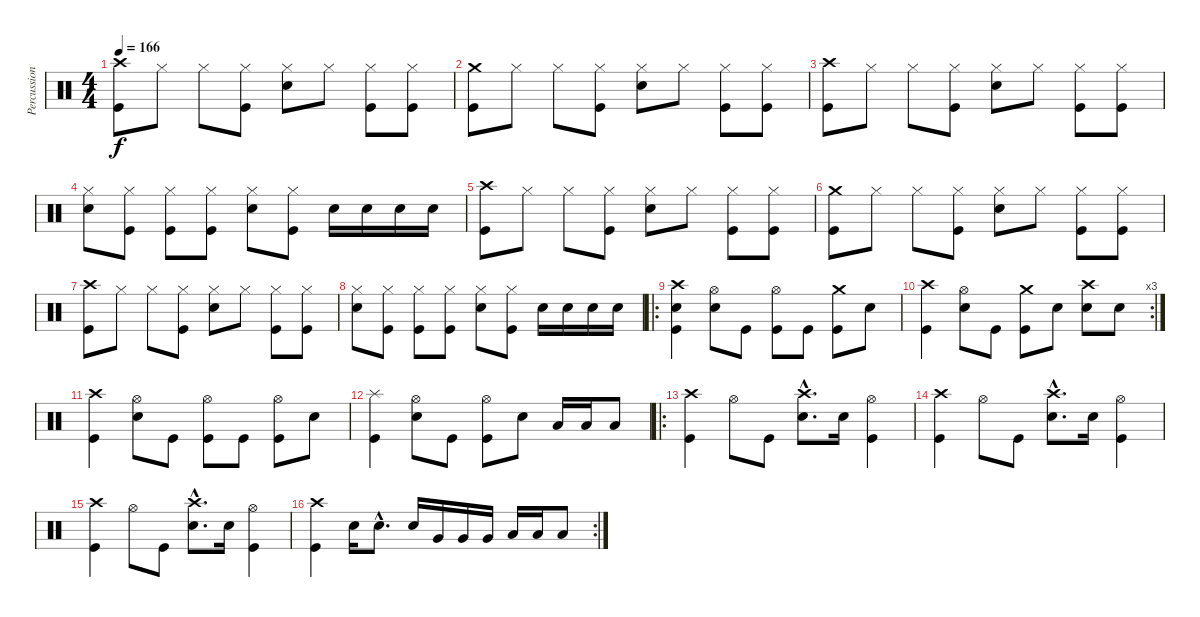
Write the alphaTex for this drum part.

\track ("Percussions" "Percussion") {instrument percussion}
\staff {score}
\articulation defaults
\ts (4 4)
\tempo 166
\clef neutral
\ks c
("Crash high (hit)" "Kick (hit)").8{dy f} "Hi-Hat (closed)".8 "Hi-Hat (closed)".8 ("Hi-Hat (closed)" "Kick (hit)").8 ("Hi-Hat (closed)" "Snare (hit) 2").8 "Hi-Hat (closed)".8 ("Hi-Hat (closed)" "Kick (hit)").8 ("Hi-Hat (closed)" "Kick (hit)").8 |
("Crash medium (hit)" "Kick (hit)").8 "Hi-Hat (closed)".8 "Hi-Hat (closed)".8 ("Hi-Hat (closed)" "Kick (hit)").8 ("Hi-Hat (closed)" "Snare (hit) 2").8 "Hi-Hat (closed)".8 ("Hi-Hat (closed)" "Kick (hit)").8 ("Hi-Hat (closed)" "Kick (hit)").8 |
("Crash high (hit)" "Kick (hit)").8 "Hi-Hat (closed)".8 "Hi-Hat (closed)".8 ("Hi-Hat (closed)" "Kick (hit)").8 ("Hi-Hat (closed)" "Snare (hit) 2").8 "Hi-Hat (closed)".8 ("Hi-Hat (closed)" "Kick (hit)").8 ("Hi-Hat (closed)" "Kick (hit)").8 |
("Hi-Hat (closed)" "Snare (hit) 2").8 ("Hi-Hat (closed)" "Kick (hit)").8 ("Hi-Hat (closed)" "Kick (hit)").8 ("Hi-Hat (closed)" "Kick (hit)").8 ("Hi-Hat (closed)" "Snare (hit) 2").8 ("Hi-Hat (closed)" "Kick (hit)").8 "Snare (hit) 2".16 "Snare (hit) 2".16 "Snare (hit) 2".16 "Snare (hit) 2".16 |
("Crash high (hit)" "Kick (hit)").8 "Hi-Hat (closed)".8 "Hi-Hat (closed)".8 ("Hi-Hat (closed)" "Kick (hit)").8 ("Hi-Hat (closed)" "Snare (hit) 2").8 "Hi-Hat (closed)".8 ("Hi-Hat (closed)" "Kick (hit)").8 ("Hi-Hat (closed)" "Kick (hit)").8 |
("Crash medium (hit)" "Kick (hit)").8 "Hi-Hat (closed)".8 "Hi-Hat (closed)".8 ("Hi-Hat (closed)" "Kick (hit)").8 ("Hi-Hat (closed)" "Snare (hit) 2").8 "Hi-Hat (closed)".8 ("Hi-Hat (closed)" "Kick (hit)").8 ("Hi-Hat (closed)" "Kick (hit)").8 |
("Crash high (hit)" "Kick (hit)").8 "Hi-Hat (closed)".8 "Hi-Hat (closed)".8 ("Hi-Hat (closed)" "Kick (hit)").8 ("Hi-Hat (closed)" "Snare (hit) 2").8 "Hi-Hat (closed)".8 ("Hi-Hat (closed)" "Kick (hit)").8 ("Hi-Hat (closed)" "Kick (hit)").8 |
("Hi-Hat (closed)" "Snare (hit) 2").8 ("Hi-Hat (closed)" "Kick (hit)").8 ("Hi-Hat (closed)" "Kick (hit)").8 ("Hi-Hat (closed)" "Kick (hit)").8 ("Hi-Hat (closed)" "Snare (hit) 2").8 ("Hi-Hat (closed)" "Kick (hit)").8 "Snare (hit) 2".16 "Snare (hit) 2".16 "Snare (hit) 2".16 "Snare (hit) 2".16 |
\ro
("Crash high (hit)" "Snare (hit) 2" "Kick (hit)").4 ("Hi-Hat (open)" "Snare (hit) 2").8 "Kick (hit)".8 ("Hi-Hat (open)" "Kick (hit)").8 "Kick (hit)".8 ("Crash medium (hit)" "Kick (hit)").8 "Snare (hit) 2".8 |
\rc 3
("Crash high (hit)" "Kick (hit)").4 ("Hi-Hat (open)" "Snare (hit) 2").8 "Kick (hit)".8 ("Crash medium (hit)" "Kick (hit)").8 "Snare (hit) 2".8 ("Crash high (hit)" "Snare (hit) 2").8 "Snare (hit) 2".8 |
("Crash high (hit)" "Kick (hit)").4 ("Hi-Hat (open)" "Snare (hit) 2").8 "Kick (hit)".8 ("Hi-Hat (open)" "Kick (hit)").8 "Kick (hit)".8 ("Hi-Hat (open)" "Kick (hit)").8 "Snare (hit) 2".8 |
("Splash (hit)" "Kick (hit)").4 ("Hi-Hat (open)" "Snare (hit) 2").8 "Kick (hit)".8 ("Hi-Hat (open)" "Kick (hit)").8 "Snare (hit) 2".8 "Low Floor Tom (hit)".16 "Low Floor Tom (hit)".16 "Low Floor Tom (hit)".8 |
\ro
("Crash high (hit)" "Kick (hit)").4 "Hi-Hat (open)".8 "Kick (hit)".8 ("Crash high (hit)"{hac} "Snare (hit) 2"{hac}).8{d} "Snare (hit) 2".16 ("Hi-Hat (open)" "Kick (hit)").4 |
("Crash high (hit)" "Kick (hit)").4 "Hi-Hat (open)".8 "Kick (hit)".8 ("Crash high (hit)"{hac} "Snare (hit) 2"{hac}).8{d} "Snare (hit) 2".16 ("Hi-Hat (open)" "Kick (hit)").4 |
("Crash high (hit)" "Kick (hit)").4 "Hi-Hat (open)".8 "Kick (hit)".8 ("Crash high (hit)"{hac} "Snare (hit) 2"{hac}).8{d} "Snare (hit) 2".16 ("Hi-Hat (open)" "Kick (hit)").4 |
\rc 2
("Crash high (hit)" "Kick (hit)").4 "Snare (hit) 2".16 "Snare (hit) 2"{hac}.8{d} "Snare (hit) 2".16 "Very Low Tom (hit)".16 "Very Low Tom (hit)".16 "Very Low Tom (hit)".16 "Low Floor Tom (hit)".16 "Low Floor Tom (hit)".16 "Low Floor Tom (hit)".8
